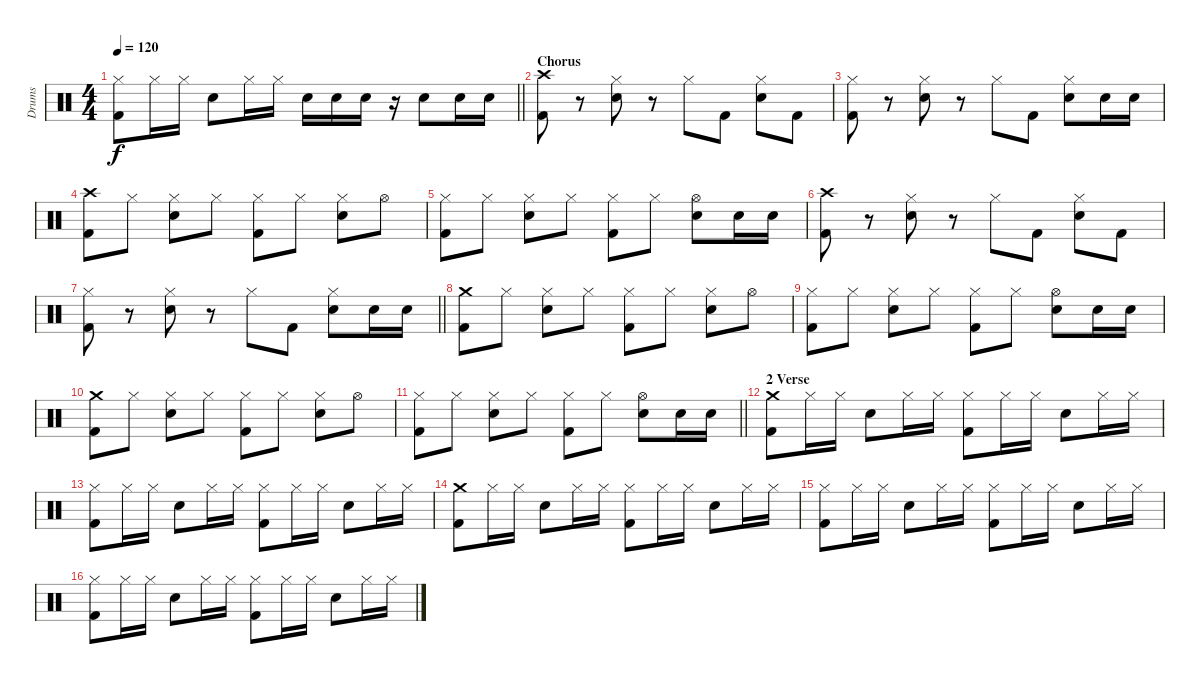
\track ("Drums" "Drums") {instrument percussion}
\staff {score}
\articulation defaults
\ts (4 4)
\tempo 120
\clef neutral
\barLineRight lightlight
\ks c
("Hi-Hat (closed)" "Kick (hit) 2").8{dy f} "Hi-Hat (closed)".16 "Hi-Hat (closed)".16 "Electric Snare (hit)".8 "Hi-Hat (closed)".16 "Hi-Hat (closed)".16 "Electric Snare (hit)".16 "Electric Snare (hit)".16 "Electric Snare (hit)".16 r.16 "Electric Snare (hit)".8 "Electric Snare (hit)".16 "Electric Snare (hit)".16 |
\section ("" "Chorus")
("Crash high (hit)" "Kick (hit) 2").8 r.8 ("Hi-Hat (closed)" "Electric Snare (hit)").8 r.8 "Hi-Hat (closed)".8 "Kick (hit) 2".8 ("Hi-Hat (closed)" "Electric Snare (hit)").8 "Kick (hit) 2".8 |
("Hi-Hat (closed)" "Kick (hit) 2").8 r.8 ("Hi-Hat (closed)" "Electric Snare (hit)").8 r.8 "Hi-Hat (closed)".8 "Kick (hit) 2".8 ("Hi-Hat (closed)" "Electric Snare (hit)").8 "Electric Snare (hit)".16 "Electric Snare (hit)".16 |
("Crash high (hit)" "Kick (hit) 2").8 "Hi-Hat (closed)".8 ("Hi-Hat (closed)" "Electric Snare (hit)").8 "Hi-Hat (closed)".8 ("Hi-Hat (closed)" "Kick (hit) 2").8 "Hi-Hat (closed)".8 ("Hi-Hat (closed)" "Electric Snare (hit)").8 "Hi-Hat (open)".8 |
("Hi-Hat (closed)" "Kick (hit) 2").8 "Hi-Hat (closed)".8 ("Hi-Hat (closed)" "Electric Snare (hit)").8 "Hi-Hat (closed)".8 ("Hi-Hat (closed)" "Kick (hit) 2").8 "Hi-Hat (closed)".8 ("Hi-Hat (open)" "Electric Snare (hit)").8 "Electric Snare (hit)".16 "Electric Snare (hit)".16 |
("Crash high (hit)" "Kick (hit) 2").8 r.8 ("Hi-Hat (closed)" "Electric Snare (hit)").8 r.8 "Hi-Hat (closed)".8 "Kick (hit) 2".8 ("Hi-Hat (closed)" "Electric Snare (hit)").8 "Kick (hit) 2".8 |
\barLineRight lightlight
("Hi-Hat (closed)" "Kick (hit) 2").8 r.8 ("Hi-Hat (closed)" "Electric Snare (hit)").8 r.8 "Hi-Hat (closed)".8 "Kick (hit) 2".8 ("Hi-Hat (closed)" "Electric Snare (hit)").8 "Electric Snare (hit)".16 "Electric Snare (hit)".16 |
\section ("" "")
("Crash medium (hit)" "Kick (hit) 2").8 "Hi-Hat (closed)".8 ("Hi-Hat (closed)" "Electric Snare (hit)").8 "Hi-Hat (closed)".8 ("Hi-Hat (closed)" "Kick (hit) 2").8 "Hi-Hat (closed)".8 ("Hi-Hat (closed)" "Electric Snare (hit)").8 "Hi-Hat (open)".8 |
("Hi-Hat (closed)" "Kick (hit) 2").8 "Hi-Hat (closed)".8 ("Hi-Hat (closed)" "Electric Snare (hit)").8 "Hi-Hat (closed)".8 ("Hi-Hat (closed)" "Kick (hit) 2").8 "Hi-Hat (closed)".8 ("Hi-Hat (open)" "Electric Snare (hit)").8 "Electric Snare (hit)".16 "Electric Snare (hit)".16 |
("Crash medium (hit)" "Kick (hit) 2").8 "Hi-Hat (closed)".8 ("Hi-Hat (closed)" "Electric Snare (hit)").8 "Hi-Hat (closed)".8 ("Hi-Hat (closed)" "Kick (hit) 2").8 "Hi-Hat (closed)".8 ("Hi-Hat (closed)" "Electric Snare (hit)").8 "Hi-Hat (open)".8 |
\barLineRight lightlight
("Hi-Hat (closed)" "Kick (hit) 2").8 "Hi-Hat (closed)".8 ("Hi-Hat (closed)" "Electric Snare (hit)").8 "Hi-Hat (closed)".8 ("Hi-Hat (closed)" "Kick (hit) 2").8 "Hi-Hat (closed)".8 ("Hi-Hat (open)" "Electric Snare (hit)").8 "Electric Snare (hit)".16 "Electric Snare (hit)".16 |
\section ("" "2 Verse")
("Crash medium (hit)" "Kick (hit) 2").8 "Hi-Hat (closed)".16 "Hi-Hat (closed)".16 "Electric Snare (hit)".8 "Hi-Hat (closed)".16 "Hi-Hat (closed)".16 ("Hi-Hat (closed)" "Kick (hit) 2").8 "Hi-Hat (closed)".16 "Hi-Hat (closed)".16 "Electric Snare (hit)".8 "Hi-Hat (closed)".16 "Hi-Hat (closed)".16 |
("Hi-Hat (closed)" "Kick (hit) 2").8 "Hi-Hat (closed)".16 "Hi-Hat (closed)".16 "Electric Snare (hit)".8 "Hi-Hat (closed)".16 "Hi-Hat (closed)".16 ("Hi-Hat (closed)" "Kick (hit) 2").8 "Hi-Hat (closed)".16 "Hi-Hat (closed)".16 "Electric Snare (hit)".8 "Hi-Hat (closed)".16 "Hi-Hat (closed)".16 |
("Crash medium (hit)" "Kick (hit) 2").8 "Hi-Hat (closed)".16 "Hi-Hat (closed)".16 "Electric Snare (hit)".8 "Hi-Hat (closed)".16 "Hi-Hat (closed)".16 ("Hi-Hat (closed)" "Kick (hit) 2").8 "Hi-Hat (closed)".16 "Hi-Hat (closed)".16 "Electric Snare (hit)".8 "Hi-Hat (closed)".16 "Hi-Hat (closed)".16 |
("Hi-Hat (closed)" "Kick (hit) 2").8 "Hi-Hat (closed)".16 "Hi-Hat (closed)".16 "Electric Snare (hit)".8 "Hi-Hat (closed)".16 "Hi-Hat (closed)".16 ("Hi-Hat (closed)" "Kick (hit) 2").8 "Hi-Hat (closed)".16 "Hi-Hat (closed)".16 "Electric Snare (hit)".8 "Hi-Hat (closed)".16 "Hi-Hat (closed)".16 |
("Hi-Hat (closed)" "Kick (hit) 2").8 "Hi-Hat (closed)".16 "Hi-Hat (closed)".16 "Electric Snare (hit)".8 "Hi-Hat (closed)".16 "Hi-Hat (closed)".16 ("Hi-Hat (closed)" "Kick (hit) 2").8 "Hi-Hat (closed)".16 "Hi-Hat (closed)".16 "Electric Snare (hit)".8 "Hi-Hat (closed)".16 "Hi-Hat (closed)".16
